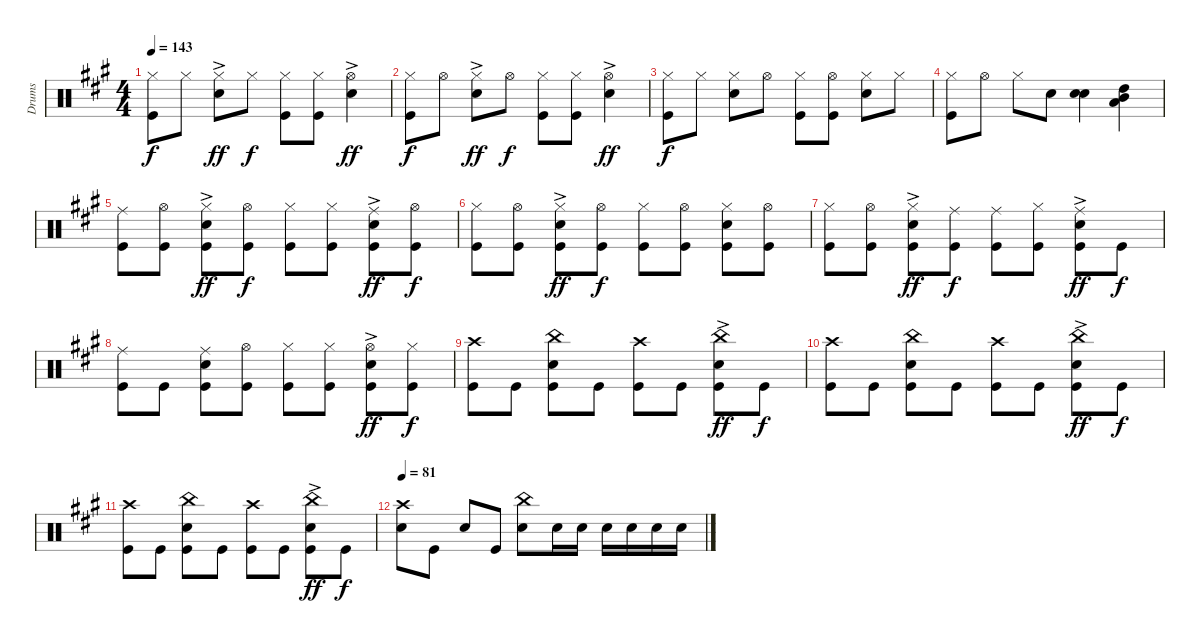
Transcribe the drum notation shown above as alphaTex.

\track ("Drums" "Drums") {instrument percussion}
\staff {score}
\articulation defaults
\ts (4 4)
\tempo 143
\clef neutral
\ks a
("Hi-Hat (closed)" "Kick (hit)").8{dy f} "Hi-Hat (closed)".8 ("Hi-Hat (closed)" "Snare (hit) 2"{ac}).8{dy ff} "Hi-Hat (closed)".8{dy f} ("Hi-Hat (closed)" "Kick (hit)").8 ("Hi-Hat (closed)" "Kick (hit)").8 ("Hi-Hat (open)"{ac} "Snare (hit) 2").4{dy ff} |
("Hi-Hat (closed)" "Kick (hit)").8{dy f} "Hi-Hat (open)".8 ("Hi-Hat (closed)" "Snare (hit) 2"{ac}).8{dy ff} "Hi-Hat (open)".8{dy f} ("Hi-Hat (closed)" "Kick (hit)").8 ("Hi-Hat (closed)" "Kick (hit)").8 ("Hi-Hat (open)"{ac} "Snare (hit) 2").4{dy ff} |
("Hi-Hat (closed)" "Kick (hit)").8{dy f} "Hi-Hat (closed)".8 ("Hi-Hat (closed)" "Snare (hit) 2").8 "Hi-Hat (open)".8 ("Hi-Hat (closed)" "Kick (hit)").8 ("Hi-Hat (open)" "Kick (hit)").8 ("Hi-Hat (closed)" "Snare (hit) 2").8 "Hi-Hat (closed)".8 |
("Hi-Hat (closed)" "Kick (hit)").8 "Hi-Hat (open)".8 "Hi-Hat (closed)".8 "Snare (hit) 2".8 ("Snare (hit) 2" "Snare (hit) 2").4{bd 120} ("Low Tom (hit)" "Mid Tom (hit)" "High Tom (hit)").4{bd 240} |
("Ride (middle)" "Kick (hit)").8 ("Hi-Hat (open)" "Kick (hit)").8 ("Hi-Hat (closed)" "Snare (hit) 2"{ac} "Kick (hit)").8{dy ff} ("Hi-Hat (open)" "Kick (hit)").8{dy f} ("Hi-Hat (closed)" "Kick (hit)").8 ("Hi-Hat (closed)" "Kick (hit)").8 ("Ride (middle)"{ac} "Snare (hit) 2" "Kick (hit)").8{dy ff} ("Hi-Hat (open)" "Kick (hit)").8{dy f} |
("Hi-Hat (closed)" "Kick (hit)").8 ("Hi-Hat (open)" "Kick (hit)").8 ("Hi-Hat (closed)" "Snare (hit) 2"{ac} "Kick (hit)").8{dy ff} ("Hi-Hat (open)" "Kick (hit)").8{dy f} ("Hi-Hat (closed)" "Kick (hit)").8 ("Hi-Hat (open)" "Kick (hit)").8 ("Hi-Hat (closed)" "Snare (hit) 2" "Kick (hit)").8 ("Hi-Hat (open)" "Kick (hit)").8 |
("Hi-Hat (closed)" "Kick (hit)").8 ("Hi-Hat (open)" "Kick (hit)").8 ("Hi-Hat (closed)" "Snare (hit) 2"{ac} "Kick (hit)").8{dy ff} ("Ride (middle)" "Kick (hit)").8{dy f} ("Ride (middle)" "Kick (hit)").8 ("Hi-Hat (closed)" "Kick (hit)").8 ("Ride (middle)"{ac} "Snare (hit) 2" "Kick (hit)").8{dy ff} "Kick (hit)".8{dy f} |
("Ride (middle)" "Kick (hit)").8 "Kick (hit)".8 ("Ride (middle)" "Snare (hit) 2" "Kick (hit)").8 ("Hi-Hat (open)" "Kick (hit)").8 ("Hi-Hat (closed)" "Kick (hit)").8 ("Hi-Hat (closed)" "Kick (hit)").8 ("Hi-Hat (open)" "Snare (hit) 2"{ac} "Kick (hit)").8{dy ff} ("Hi-Hat (closed)" "Kick (hit)").8{dy f} |
("Crash high (hit)" "Kick (hit)").8 "Kick (hit)".8 ("China (hit)" "Snare (hit) 2" "Kick (hit)").8 "Kick (hit)".8 ("Crash high (hit)" "Kick (hit)").8 "Kick (hit)".8 ("China (hit)" "Snare (hit) 2"{ac} "Kick (hit)").8{dy ff} "Kick (hit)".8{dy f} |
("Crash high (hit)" "Kick (hit)").8 "Kick (hit)".8 ("China (hit)" "Snare (hit) 2" "Kick (hit)").8 "Kick (hit)".8 ("Crash high (hit)" "Kick (hit)").8 "Kick (hit)".8 ("China (hit)" "Snare (hit) 2"{ac} "Kick (hit)").8{dy ff} "Kick (hit)".8{dy f} |
("Crash high (hit)" "Kick (hit)").8 "Kick (hit)".8 ("China (hit)" "Snare (hit) 2" "Kick (hit)").8 "Kick (hit)".8 ("Crash high (hit)" "Kick (hit)").8 "Kick (hit)".8 ("China (hit)" "Snare (hit) 2"{ac} "Kick (hit)").8{dy ff} "Kick (hit)".8{dy f} |
\tempo 81
("Crash high (hit)" "Snare (hit) 2").8 "Kick (hit)".8 "Snare (hit) 2".8 "Kick (hit)".8 ("China (hit)" "Snare (hit) 2").8 "Snare (hit) 2".16 "Snare (hit) 2".16 "Snare (hit) 2".16 "Snare (hit) 2".16 "Snare (hit) 2".16 "Snare (hit) 2".16
